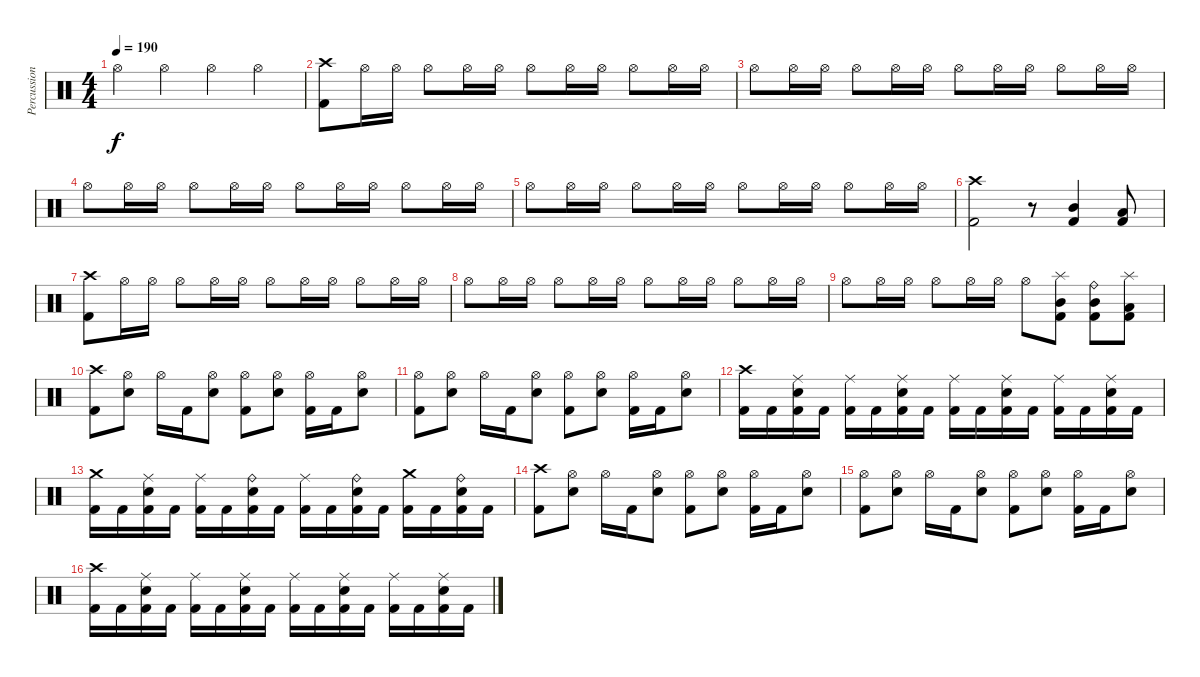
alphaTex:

\track ("Percussion" "Percussion") {instrument percussion}
\staff {score}
\articulation defaults
\ts (4 4)
\tempo 190
\clef neutral
\ks c "Hi-Hat (open)".4{dy f} "Hi-Hat (open)".4 "Hi-Hat (open)".4 "Hi-Hat (open)".4
|
("Crash high (hit)" "Kick (hit) 2").8 "Hi-Hat (open)".16 "Hi-Hat (open)".16 "Hi-Hat (open)".8 "Hi-Hat (open)".16 "Hi-Hat (open)".16 "Hi-Hat (open)".8 "Hi-Hat (open)".16 "Hi-Hat (open)".16 "Hi-Hat (open)".8 "Hi-Hat (open)".16 "Hi-Hat (open)".16 |
"Hi-Hat (open)".8 "Hi-Hat (open)".16 "Hi-Hat (open)".16 "Hi-Hat (open)".8 "Hi-Hat (open)".16 "Hi-Hat (open)".16 "Hi-Hat (open)".8 "Hi-Hat (open)".16 "Hi-Hat (open)".16 "Hi-Hat (open)".8 "Hi-Hat (open)".16 "Hi-Hat (open)".16 |
"Hi-Hat (open)".8 "Hi-Hat (open)".16 "Hi-Hat (open)".16 "Hi-Hat (open)".8 "Hi-Hat (open)".16 "Hi-Hat (open)".16 "Hi-Hat (open)".8 "Hi-Hat (open)".16 "Hi-Hat (open)".16 "Hi-Hat (open)".8 "Hi-Hat (open)".16 "Hi-Hat (open)".16 |
"Hi-Hat (open)".8 "Hi-Hat (open)".16 "Hi-Hat (open)".16 "Hi-Hat (open)".8 "Hi-Hat (open)".16 "Hi-Hat (open)".16 "Hi-Hat (open)".8 "Hi-Hat (open)".16 "Hi-Hat (open)".16 "Hi-Hat (open)".8 "Hi-Hat (open)".16 "Hi-Hat (open)".16 |
("Crash high (hit)" "Kick (hit) 2").2 r.8 ("Mid Tom (hit)" "Kick (hit) 2").4 ("Low Tom (hit)" "Kick (hit) 2").8 |
("Crash high (hit)" "Kick (hit) 2").8 "Hi-Hat (open)".16 "Hi-Hat (open)".16 "Hi-Hat (open)".8 "Hi-Hat (open)".16 "Hi-Hat (open)".16 "Hi-Hat (open)".8 "Hi-Hat (open)".16 "Hi-Hat (open)".16 "Hi-Hat (open)".8 "Hi-Hat (open)".16 "Hi-Hat (open)".16 |
"Hi-Hat (open)".8 "Hi-Hat (open)".16 "Hi-Hat (open)".16 "Hi-Hat (open)".8 "Hi-Hat (open)".16 "Hi-Hat (open)".16 "Hi-Hat (open)".8 "Hi-Hat (open)".16 "Hi-Hat (open)".16 "Hi-Hat (open)".8 "Hi-Hat (open)".16 "Hi-Hat (open)".16 |
"Hi-Hat (open)".8 "Hi-Hat (open)".16 "Hi-Hat (open)".16 "Hi-Hat (open)".8 "Hi-Hat (open)".16 "Hi-Hat (open)".16 "Hi-Hat (open)".8 ("Splash (hit)" "Mid Tom (hit)" "Kick (hit) 2").8 ("Ride (bell)" "Mid Tom (hit)" "Kick (hit) 2").8 ("Splash (hit)" "Low Tom (hit)" "Kick (hit) 2").8 |
("Crash high (hit)" "Kick (hit) 2").8 ("Hi-Hat (open)" "Snare (hit) 2").8 "Hi-Hat (open)".16 "Kick (hit) 2".16 ("Hi-Hat (open)" "Snare (hit) 2").8 ("Hi-Hat (open)" "Kick (hit) 2").8 ("Hi-Hat (open)" "Snare (hit) 2").8 ("Hi-Hat (open)" "Kick (hit) 2").16 "Kick (hit) 2".16 ("Hi-Hat (open)" "Snare (hit) 2").8 |
("Hi-Hat (open)" "Kick (hit) 2").8 ("Hi-Hat (open)" "Snare (hit) 2").8 "Hi-Hat (open)".16 "Kick (hit) 2".16 ("Hi-Hat (open)" "Snare (hit) 2").8 ("Hi-Hat (open)" "Kick (hit) 2").8 ("Hi-Hat (open)" "Snare (hit) 2").8 ("Hi-Hat (open)" "Kick (hit) 2").16 "Kick (hit) 2".16 ("Hi-Hat (open)" "Snare (hit) 2").8 |
("Crash high (hit)" "Kick (hit) 2").16 "Kick (hit) 2".16 ("Ride (middle)" "Snare (hit) 2" "Kick (hit) 2").16 "Kick (hit) 2".16 ("Ride (middle)" "Kick (hit) 2").16 "Kick (hit) 2".16 ("Ride (middle)" "Snare (hit) 2" "Kick (hit) 2").16 "Kick (hit) 2".16 ("Ride (middle)" "Kick (hit) 2").16 "Kick (hit) 2".16 ("Ride (middle)" "Snare (hit) 2" "Kick (hit) 2").16 "Kick (hit) 2".16 ("Ride (middle)" "Kick (hit) 2").16 "Kick (hit) 2".16 ("Ride (middle)" "Snare (hit) 2" "Kick (hit) 2").16 "Kick (hit) 2".16 |
("Crash medium (hit)" "Kick (hit) 2").16 "Kick (hit) 2".16 ("Ride (middle)" "Snare (hit) 2" "Kick (hit) 2").16 "Kick (hit) 2".16 ("Ride (middle)" "Kick (hit) 2").16 "Kick (hit) 2".16 ("Ride (bell)" "Snare (hit) 2" "Kick (hit) 2").16 "Kick (hit) 2".16 ("Ride (middle)" "Kick (hit) 2").16 "Kick (hit) 2".16 ("Ride (bell)" "Snare (hit) 2" "Kick (hit) 2").16 "Kick (hit) 2".16 ("Crash medium (hit)" "Kick (hit) 2").16 "Kick (hit) 2".16 ("Ride (bell)" "Snare (hit) 2" "Kick (hit) 2").16 "Kick (hit) 2".16 |
("Crash high (hit)" "Kick (hit) 2").8 ("Hi-Hat (open)" "Snare (hit) 2").8 "Hi-Hat (open)".16 "Kick (hit) 2".16 ("Hi-Hat (open)" "Snare (hit) 2").8 ("Hi-Hat (open)" "Kick (hit) 2").8 ("Hi-Hat (open)" "Snare (hit) 2").8 ("Hi-Hat (open)" "Kick (hit) 2").16 "Kick (hit) 2".16 ("Hi-Hat (open)" "Snare (hit) 2").8 |
("Hi-Hat (open)" "Kick (hit) 2").8 ("Hi-Hat (open)" "Snare (hit) 2").8 "Hi-Hat (open)".16 "Kick (hit) 2".16 ("Hi-Hat (open)" "Snare (hit) 2").8 ("Hi-Hat (open)" "Kick (hit) 2").8 ("Hi-Hat (open)" "Snare (hit) 2").8 ("Hi-Hat (open)" "Kick (hit) 2").16 "Kick (hit) 2".16 ("Hi-Hat (open)" "Snare (hit) 2").8 |
("Crash high (hit)" "Kick (hit) 2").16 "Kick (hit) 2".16 ("Ride (middle)" "Snare (hit) 2" "Kick (hit) 2").16 "Kick (hit) 2".16 ("Ride (middle)" "Kick (hit) 2").16 "Kick (hit) 2".16 ("Ride (middle)" "Snare (hit) 2" "Kick (hit) 2").16 "Kick (hit) 2".16 ("Ride (middle)" "Kick (hit) 2").16 "Kick (hit) 2".16 ("Ride (middle)" "Snare (hit) 2" "Kick (hit) 2").16 "Kick (hit) 2".16 ("Ride (middle)" "Kick (hit) 2").16 "Kick (hit) 2".16 ("Ride (middle)" "Snare (hit) 2" "Kick (hit) 2").16 "Kick (hit) 2".16
